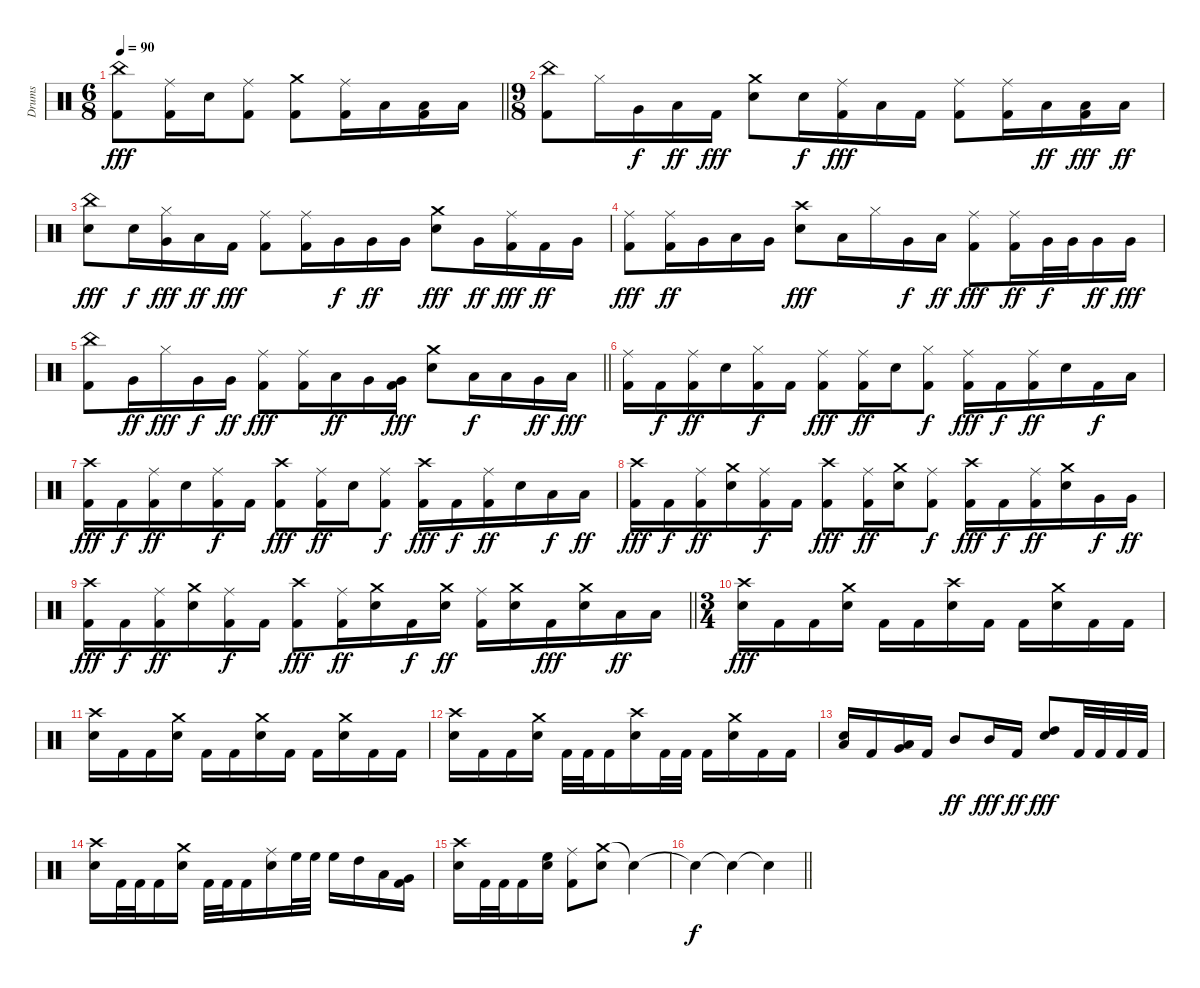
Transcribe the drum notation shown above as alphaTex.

\track ("Drums" "Drums") {instrument percussion}
\staff {score}
\articulation defaults
\ts (6 8)
\tempo 90
\clef neutral
\barLineRight lightlight
\ks c
("China (hit)" "Kick (hit) 2").8{dy fff} ("Ride (middle)" "Kick (hit) 2").16 "Snare (hit) 2".16 ("Ride (middle)" "Kick (hit) 2").8 ("Crash medium (hit)" "Kick (hit) 2").8 ("Ride (middle)" "Kick (hit) 2").16 "Low Tom (hit)".16 ("Low Tom (hit)" "Kick (hit) 2").16 "Low Tom (hit)".16 |
\ts (9 8)
\section ("" "")
("China (hit)" "Kick (hit) 2").8 "Hi-Hat (closed)".16 "Very Low Tom (hit)".16{dy f} "Low Tom (hit)".16{dy ff} "Kick (hit) 2".16{dy fff} ("Crash medium (hit)" "Snare (hit) 2").8 "Snare (hit) 2".16{dy f} ("Ride (middle)" "Kick (hit) 2").16{dy fff} "Low Tom (hit)".16 "Kick (hit) 2".16 ("Ride (middle)" "Kick (hit) 2").8 ("Ride (middle)" "Kick (hit) 2").16 "Low Tom (hit)".16{dy ff} ("Low Tom (hit)" "Kick (hit) 2").16{dy fff} "Low Tom (hit)".16{dy ff} |
("China (hit)" "Snare (hit) 2").8{dy fff} "Snare (hit) 2".16{dy f} ("Hi-Hat (closed)" "Very Low Tom (hit)").16{dy fff} "Low Tom (hit)".16{dy ff} "Kick (hit) 2".16{dy fff} ("Ride (middle)" "Kick (hit) 2").8 ("Ride (middle)" "Kick (hit) 2").16 "Very Low Tom (hit)".16{dy f} "Very Low Tom (hit)".16{dy ff} "Very Low Tom (hit)".16 ("Crash medium (hit)" "Snare (hit) 2").8{dy fff} "Very Low Tom (hit)".16{dy ff} ("Ride (middle)" "Kick (hit) 2").16{dy fff} "Kick (hit) 2".16{dy ff} "Very Low Tom (hit)".16 |
("Ride (middle)" "Kick (hit) 2").8{dy fff} ("Ride (middle)" "Kick (hit) 2").16{dy ff} "Very Low Tom (hit)".16 "Low Tom (hit)".16 "Very Low Tom (hit)".16 ("Crash high (hit)" "Snare (hit) 2").8{dy fff} "Low Tom (hit)".16 "Hi-Hat (closed)".16 "Very Low Tom (hit)".16{dy f} "Low Tom (hit)".16{dy ff} ("Ride (middle)" "Kick (hit) 2").8{dy fff} ("Ride (middle)" "Kick (hit) 2").16{dy ff} "Very Low Tom (hit)".32{dy f} "Very Low Tom (hit)".32 "Very Low Tom (hit)".16{dy ff} "Very Low Tom (hit)".16{dy fff} |
\barLineRight lightlight
("China (hit)" "Kick (hit) 2").8 "Very Low Tom (hit)".16{dy ff} "Hi-Hat (closed)".16{dy fff} "Very Low Tom (hit)".16{dy f} "Very Low Tom (hit)".16{dy ff} ("Ride (middle)" "Kick (hit) 2").8{dy fff} ("Ride (middle)" "Kick (hit) 2").16 "Low Tom (hit)".16{dy ff} "Very Low Tom (hit)".16 ("Very Low Tom (hit)" "Kick (hit) 2").16{dy fff} ("Crash medium (hit)" "Snare (hit) 2").8 "Low Tom (hit)".16{dy f} "Low Tom (hit)".16 "Very Low Tom (hit)".16{dy ff} "Low Floor Tom (hit)".16{dy fff} |
("Ride (middle)" "Kick (hit) 2").16 "Kick (hit) 2".16{dy f} ("Ride (middle)" "Kick (hit) 2").16{dy ff} "Snare (hit) 2".16 ("Hi-Hat (closed)" "Kick (hit) 2").16{dy f} "Kick (hit) 2".16 ("Ride (middle)" "Kick (hit) 2").8{dy fff} ("Ride (middle)" "Kick (hit) 2").16{dy ff} "Snare (hit) 2".16 ("Hi-Hat (closed)" "Kick (hit) 2").8{dy f} ("Ride (middle)" "Kick (hit) 2").16{dy fff} "Kick (hit) 2".16{dy f} ("Ride (middle)" "Kick (hit) 2").16{dy ff} "Snare (hit) 2".16 "Kick (hit) 2".16{dy f} "Low Tom (hit)".16 |
("Crash high (hit)" "Kick (hit) 2").16{dy fff} "Kick (hit) 2".16{dy f} ("Ride (middle)" "Kick (hit) 2").16{dy ff} "Snare (hit) 2".16 ("Ride (middle)" "Kick (hit) 2").16{dy f} "Kick (hit) 2".16 ("Crash high (hit)" "Kick (hit) 2").8{dy fff} ("Ride (middle)" "Kick (hit) 2").16{dy ff} "Snare (hit) 2".16 ("Ride (middle)" "Kick (hit) 2").8{dy f} ("Crash high (hit)" "Kick (hit) 2").16{dy fff} "Kick (hit) 2".16{dy f} ("Ride (middle)" "Kick (hit) 2").16{dy ff} "Snare (hit) 2".16 "Low Tom (hit)".16{dy f} "Low Tom (hit)".16{dy ff} |
("Crash high (hit)" "Kick (hit) 2").16{dy fff} "Kick (hit) 2".16{dy f} ("Ride (middle)" "Kick (hit) 2").16{dy ff} ("Crash medium (hit)" "Snare (hit) 2").16 ("Ride (middle)" "Kick (hit) 2").16{dy f} "Kick (hit) 2".16 ("Crash high (hit)" "Kick (hit) 2").8{dy fff} ("Ride (middle)" "Kick (hit) 2").16{dy ff} ("Crash medium (hit)" "Snare (hit) 2").16 ("Ride (middle)" "Kick (hit) 2").8{dy f} ("Crash high (hit)" "Kick (hit) 2").16{dy fff} "Kick (hit) 2".16{dy f} ("Ride (middle)" "Kick (hit) 2").16{dy ff} ("Crash medium (hit)" "Snare (hit) 2").16 "Very Low Tom (hit)".16{dy f} "Very Low Tom (hit)".16{dy ff} |
\barLineRight lightlight
("Crash high (hit)" "Kick (hit) 2").16{dy fff} "Kick (hit) 2".16{dy f} ("Ride (middle)" "Kick (hit) 2").16{dy ff} ("Crash medium (hit)" "Snare (hit) 2").16 ("Ride (middle)" "Kick (hit) 2").16{dy f} "Kick (hit) 2".16 ("Crash high (hit)" "Kick (hit) 2").8{dy fff} ("Ride (middle)" "Kick (hit) 2").16{dy ff} ("Crash medium (hit)" "Snare (hit) 2").16 "Kick (hit) 2".16{dy f} ("Crash medium (hit)" "Snare (hit) 2").16{dy ff} ("Ride (middle)" "Kick (hit) 2").16 ("Crash medium (hit)" "Snare (hit) 2").16 "Kick (hit) 2".16{dy fff} ("Crash medium (hit)" "Snare (hit) 2").16 "Low Tom (hit)".16{dy ff} "Low Tom (hit)".16 |
\ts (3 4)
\section ("" "")
("Crash high (hit)" "Snare (hit) 2").16{dy fff} "Kick (hit) 2".16 "Kick (hit) 2".16 ("Crash medium (hit)" "Snare (hit) 2").16 "Kick (hit) 2".16 "Kick (hit) 2".16 ("Crash high (hit)" "Snare (hit) 2").16 "Kick (hit) 2".16 "Kick (hit) 2".16 ("Crash medium (hit)" "Snare (hit) 2").16 "Kick (hit) 2".16 "Kick (hit) 2".16 |
("Crash high (hit)" "Snare (hit) 2").16 "Kick (hit) 2".16 "Kick (hit) 2".16 ("Crash medium (hit)" "Snare (hit) 2").16 "Kick (hit) 2".16 "Kick (hit) 2".16 ("Crash medium (hit)" "Snare (hit) 2").16 "Kick (hit) 2".16 "Kick (hit) 2".16 ("Crash medium (hit)" "Snare (hit) 2").16 "Kick (hit) 2".16 "Kick (hit) 2".16 |
("Crash high (hit)" "Snare (hit) 2").16 "Kick (hit) 2".16 "Kick (hit) 2".16 ("Crash medium (hit)" "Snare (hit) 2").16 "Kick (hit) 2".32 "Kick (hit) 2".32 "Kick (hit) 2".16 ("Crash high (hit)" "Snare (hit) 2").16 "Kick (hit) 2".32 "Kick (hit) 2".32 "Kick (hit) 2".16 ("Crash medium (hit)" "Snare (hit) 2").16 "Kick (hit) 2".16 "Kick (hit) 2".16 |
("Low Tom (hit)" "Snare (hit) 2").16 "Kick (hit) 2".16 ("Low Tom (hit)" "Very Low Tom (hit)").16 "Kick (hit) 2".16 "Mid Tom (hit)".8{dy ff} "Mid Tom (hit)".16{dy fff} "Kick (hit) 2".16{dy ff} ("High Tom (hit)" "Snare (hit) 2").8{dy fff} "Kick (hit) 2".32 "Kick (hit) 2".32 "Kick (hit) 2".32 "Kick (hit) 2".32 |
("Crash high (hit)" "Snare (hit) 2").16 "Kick (hit) 2".32 "Kick (hit) 2".32 "Kick (hit) 2".16 ("Crash medium (hit)" "Snare (hit) 2").16 "Kick (hit) 2".32 "Kick (hit) 2".32 "Kick (hit) 2".16 ("Ride (middle)" "Snare (hit) 2").16 "High Floor Tom (hit)".32 "High Floor Tom (hit)".32 "High Floor Tom (hit)".16 "High Tom (hit)".16 "Low Tom (hit)".16 ("Very Low Tom (hit)" "Kick (hit) 2").16 |
("Crash high (hit)" "Snare (hit) 2").16 "Kick (hit) 2".32 "Kick (hit) 2".32 "Kick (hit) 2".16 ("Snare (hit) 2" "High Floor Tom (hit)").16 ("Ride (middle)" "Kick (hit) 2").8 ("Crash medium (hit)" "Snare (hit) 2").8 "Snare (hit)"{t}.4 |
\barLineRight lightlight "Snare (hit)"{t}.4{dy f} "Snare (hit)"{t}.4 "Snare (hit)"{t}.4
